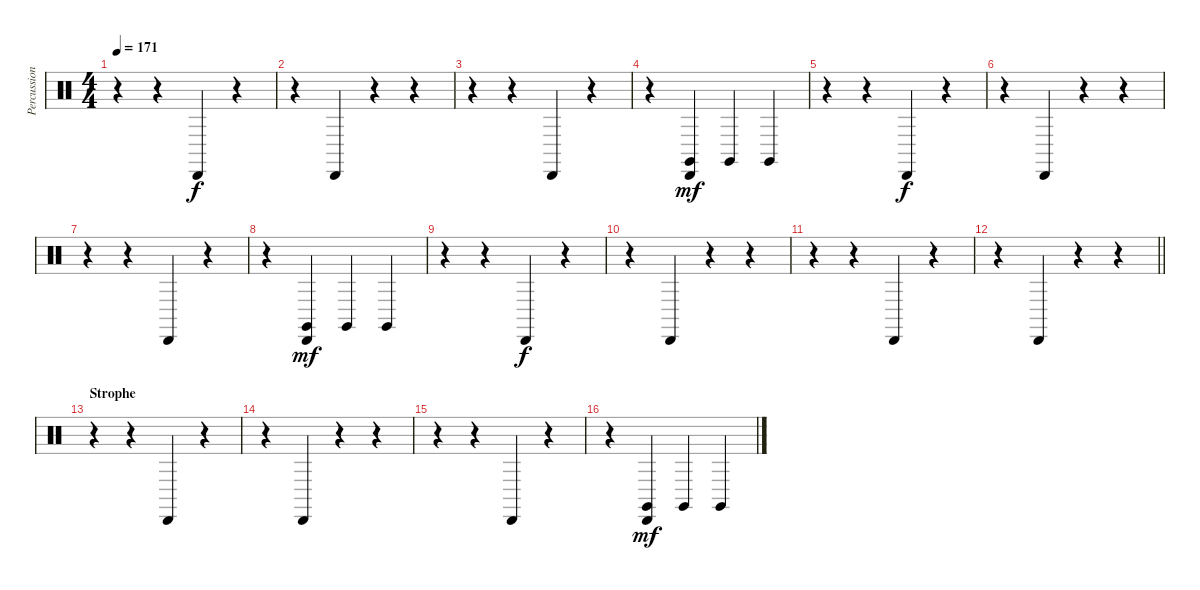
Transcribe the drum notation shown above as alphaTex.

\track ("Percussion" "Percussion") {instrument percussion}
\staff {score}
\articulation defaults
\ts (4 4)
\section ("" "")
\tempo 171
\clef neutral
\ks c
r.4{dy f} r.4 "Cabasa (hit)".4 r.4 |
r.4 "Cabasa (hit)".4 r.4 r.4 |
r.4 r.4 "Cabasa (hit)".4 r.4 |
r.4 ("Cabasa (hit)" "Claves (hit)").4{dy mf} "Claves (hit)".4 "Claves (hit)".4 |
r.4 r.4 "Cabasa (hit)".4{dy f} r.4 |
r.4 "Cabasa (hit)".4 r.4 r.4 |
r.4 r.4 "Cabasa (hit)".4 r.4 |
r.4 ("Cabasa (hit)" "Claves (hit)").4{dy mf} "Claves (hit)".4 "Claves (hit)".4 |
r.4 r.4 "Cabasa (hit)".4{dy f} r.4 |
r.4 "Cabasa (hit)".4 r.4 r.4 |
r.4 r.4 "Cabasa (hit)".4 r.4 |
\barLineRight lightlight
r.4 "Cabasa (hit)".4 r.4 r.4 |
\section ("" "Strophe")
r.4 r.4 "Cabasa (hit)".4 r.4 |
r.4 "Cabasa (hit)".4 r.4 r.4 |
r.4 r.4 "Cabasa (hit)".4 r.4 |
r.4 ("Cabasa (hit)" "Claves (hit)").4{dy mf} "Claves (hit)".4 "Claves (hit)".4
